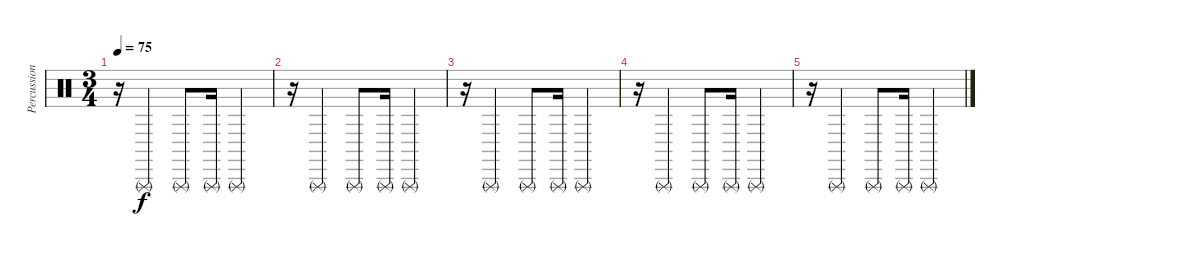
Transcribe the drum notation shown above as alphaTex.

\track ("Percussions" "Percussion") {instrument percussion}
\staff {score}
\articulation defaults
\ts (3 4)
\tempo 75
\clef neutral
\ks c
r.16{dy f} "Triangle (rnute)".4 "Triangle (rnute)".8 "Triangle (rnute)".16 "Triangle (rnute)".4 |
r.16 "Triangle (rnute)".4 "Triangle (rnute)".8 "Triangle (rnute)".16 "Triangle (rnute)".4 |
r.16 "Triangle (rnute)".4 "Triangle (rnute)".8 "Triangle (rnute)".16 "Triangle (rnute)".4 |
r.16 "Triangle (rnute)".4 "Triangle (rnute)".8 "Triangle (rnute)".16 "Triangle (rnute)".4 |
r.16 "Triangle (rnute)".4 "Triangle (rnute)".8 "Triangle (rnute)".16 "Triangle (rnute)".4
